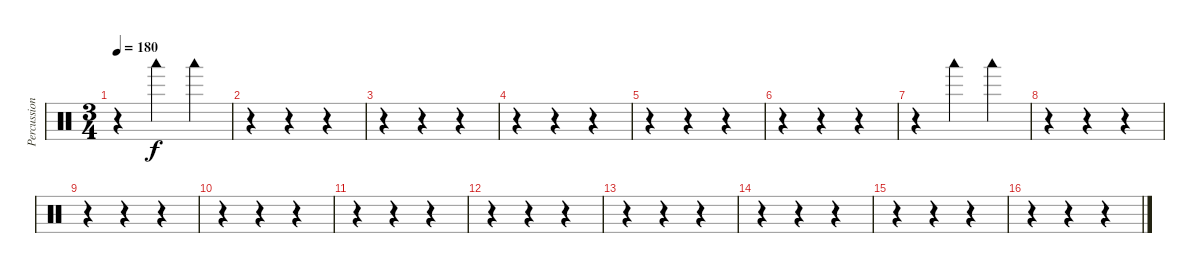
\track ("Percussions" "Percussion") {instrument percussion}
\staff {score}
\articulation defaults
\ts (3 4)
\tempo 180
\clef neutral
\ks c
r.4{dy f} "Woodblock low (hit)".4 "Woodblock low (hit)".4 |
r.4 r.4 r.4 |
r.4 r.4 r.4 |
r.4 r.4 r.4 |
r.4 r.4 r.4 |
r.4 r.4 r.4 |
r.4 "Woodblock low (hit)".4 "Woodblock low (hit)".4 |
r.4 r.4 r.4 |
r.4 r.4 r.4 |
r.4 r.4 r.4 |
r.4 r.4 r.4 |
r.4 r.4 r.4 |
r.4 r.4 r.4 |
r.4 r.4 r.4 |
r.4 r.4 r.4 |
r.4 r.4 r.4
